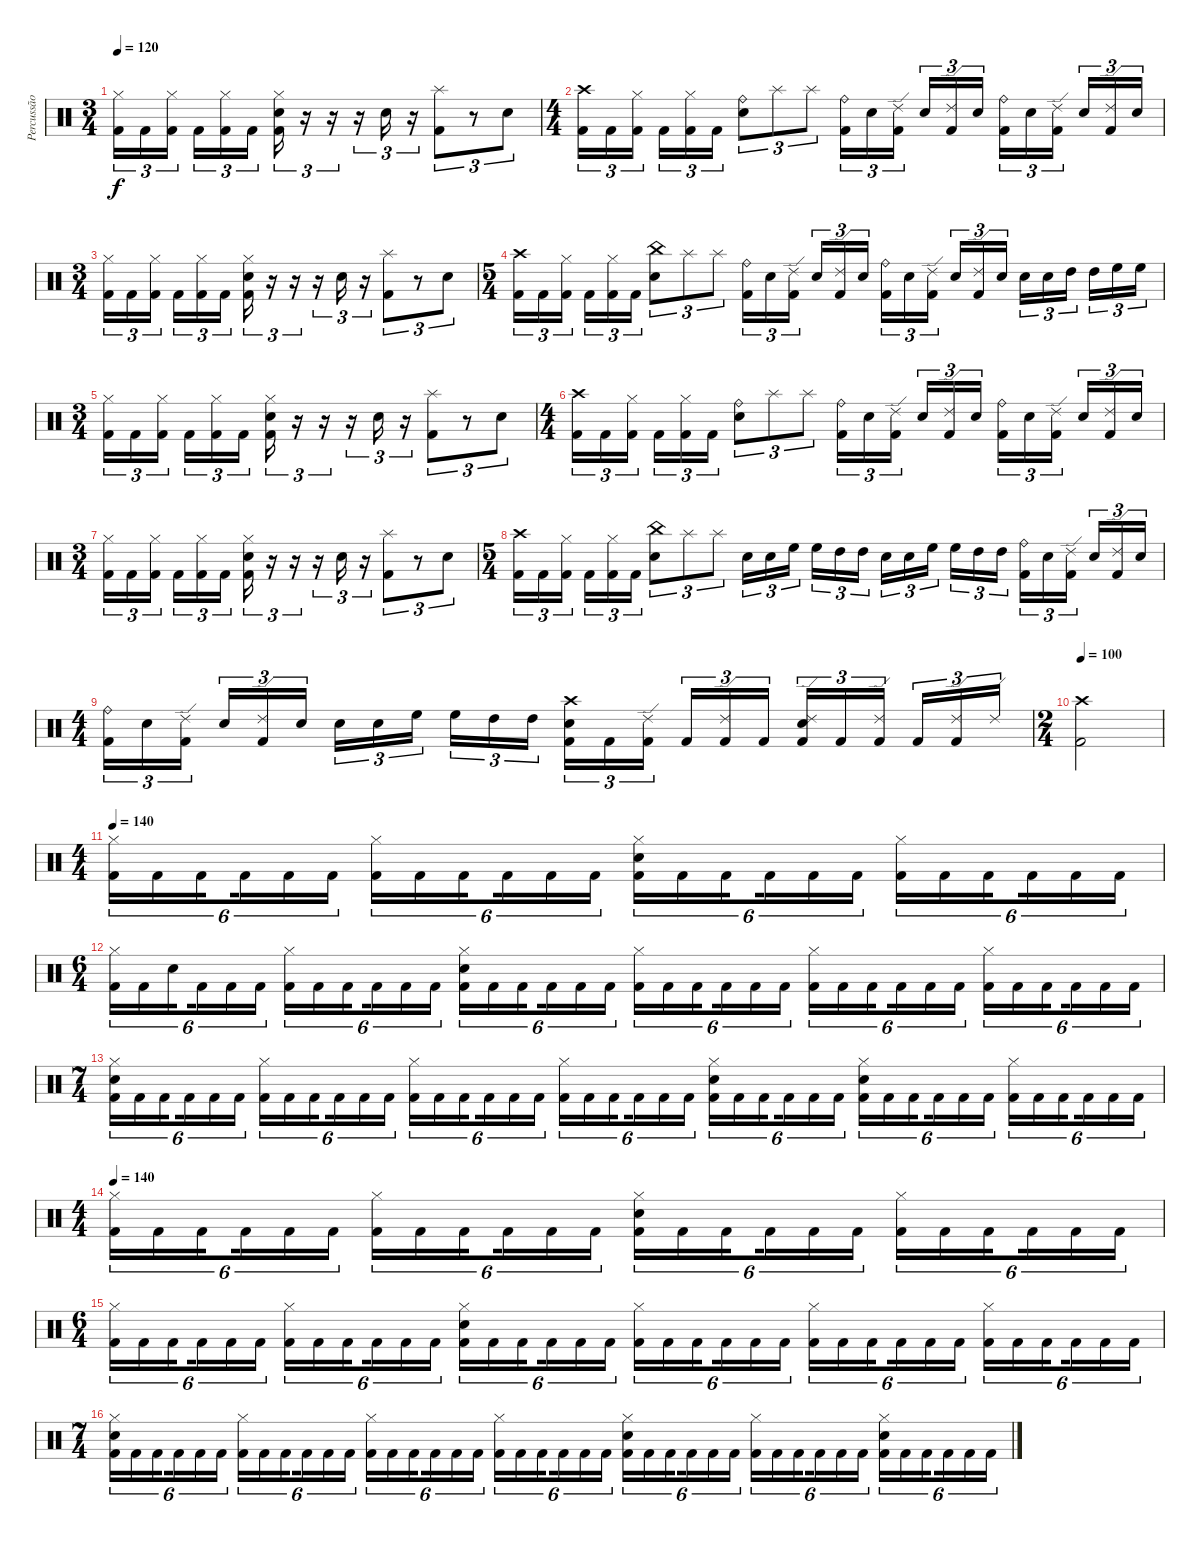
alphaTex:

\track ("Percussão" "Percussão") {instrument percussion}
\staff {score}
\articulation defaults
\ts (3 4)
\tempo 120
\clef neutral
\ks c
("Hi-Hat (closed)" "Kick (hit) 2").16{tu (3 2) dy f} "Kick (hit) 2".16{tu (3 2)} ("Hi-Hat (closed)" "Kick (hit) 2").16{tu (3 2) beam splitsecondary} "Kick (hit) 2".16{tu (3 2)} ("Hi-Hat (closed)" "Kick (hit) 2").16{tu (3 2)} "Kick (hit) 2".16{tu (3 2)} ("Hi-Hat (closed)" "Electric Snare (hit)" "Kick (hit) 2").16{tu (3 2)} r.16{tu (3 2)} r.16{tu (3 2)} r.16{tu (3 2)} "Electric Snare (hit)".16{tu (3 2)} r.16{tu (3 2)} ("Splash (hit)" "Kick (hit) 2").8{tu (3 2)} r.8{tu (3 2)} "Electric Snare (hit)".8{tu (3 2)} |
\ts (4 4)
("Crash high (hit)" "Kick (hit) 2").16{tu (3 2)} "Kick (hit) 2".16{tu (3 2)} ("Hi-Hat (closed)" "Kick (hit) 2").16{tu (3 2) beam splitsecondary} "Kick (hit) 2".16{tu (3 2)} ("Hi-Hat (closed)" "Kick (hit) 2").16{tu (3 2)} "Kick (hit) 2".16{tu (3 2)} ("Ride (bell)" "Electric Snare (hit)").8{tu (3 2)} "Splash (hit)".8{tu (3 2)} "Splash (hit)".8{tu (3 2)} ("Ride (bell)" "Kick (hit) 2").16{tu (3 2)} "Electric Snare (hit)".16{tu (3 2)} ("Ride (edge) 2" "Kick (hit) 2").16{tu (3 2) beam splitsecondary} "Electric Snare (hit)".16{tu (3 2)} ("Ride (edge) 2" "Kick (hit) 2").16{tu (3 2)} "Electric Snare (hit)".16{tu (3 2)} ("Ride (bell)" "Kick (hit) 2").16{tu (3 2)} "Electric Snare (hit)".16{tu (3 2)} ("Ride (edge) 2" "Kick (hit) 2").16{tu (3 2) beam splitsecondary} "Electric Snare (hit)".16{tu (3 2)} ("Ride (edge) 2" "Kick (hit) 2").16{tu (3 2)} "Electric Snare (hit)".16{tu (3 2)} |
\ts (3 4)
("Hi-Hat (closed)" "Kick (hit) 2").16{tu (3 2)} "Kick (hit) 2".16{tu (3 2)} ("Hi-Hat (closed)" "Kick (hit) 2").16{tu (3 2) beam splitsecondary} "Kick (hit) 2".16{tu (3 2)} ("Hi-Hat (closed)" "Kick (hit) 2").16{tu (3 2)} "Kick (hit) 2".16{tu (3 2)} ("Hi-Hat (closed)" "Electric Snare (hit)" "Kick (hit) 2").16{tu (3 2)} r.16{tu (3 2)} r.16{tu (3 2)} r.16{tu (3 2)} "Electric Snare (hit)".16{tu (3 2)} r.16{tu (3 2)} ("Splash (hit)" "Kick (hit) 2").8{tu (3 2)} r.8{tu (3 2)} "Electric Snare (hit)".8{tu (3 2)} |
\ts (5 4)
("Crash high (hit)" "Kick (hit) 2").16{tu (3 2)} "Kick (hit) 2".16{tu (3 2)} ("Hi-Hat (closed)" "Kick (hit) 2").16{tu (3 2) beam splitsecondary} "Kick (hit) 2".16{tu (3 2)} ("Hi-Hat (closed)" "Kick (hit) 2").16{tu (3 2)} "Kick (hit) 2".16{tu (3 2)} ("China (hit)" "Electric Snare (hit)").8{tu (3 2)} "Splash (hit)".8{tu (3 2)} "Splash (hit)".8{tu (3 2)} ("Ride (bell)" "Kick (hit) 2").16{tu (3 2)} "Electric Snare (hit)".16{tu (3 2)} ("Ride (edge) 2" "Kick (hit) 2").16{tu (3 2) beam splitsecondary} "Electric Snare (hit)".16{tu (3 2)} ("Ride (edge) 2" "Kick (hit) 2").16{tu (3 2)} "Electric Snare (hit)".16{tu (3 2)} ("Ride (bell)" "Kick (hit) 2").16{tu (3 2)} "Electric Snare (hit)".16{tu (3 2)} ("Ride (edge) 2" "Kick (hit) 2").16{tu (3 2) beam splitsecondary} "Electric Snare (hit)".16{tu (3 2)} ("Ride (edge) 2" "Kick (hit) 2").16{tu (3 2)} "Electric Snare (hit)".16{tu (3 2)} "Electric Snare (hit)".16{tu (3 2)} "Electric Snare (hit)".16{tu (3 2)} "High Tom (hit)".16{tu (3 2) beam splitsecondary} "High Tom (hit)".16{tu (3 2)} "High Floor Tom (hit)".16{tu (3 2)} "High Floor Tom (hit)".16{tu (3 2)} |
\ts (3 4)
("Hi-Hat (closed)" "Kick (hit) 2").16{tu (3 2)} "Kick (hit) 2".16{tu (3 2)} ("Hi-Hat (closed)" "Kick (hit) 2").16{tu (3 2) beam splitsecondary} "Kick (hit) 2".16{tu (3 2)} ("Hi-Hat (closed)" "Kick (hit) 2").16{tu (3 2)} "Kick (hit) 2".16{tu (3 2)} ("Hi-Hat (closed)" "Electric Snare (hit)" "Kick (hit) 2").16{tu (3 2)} r.16{tu (3 2)} r.16{tu (3 2)} r.16{tu (3 2)} "Electric Snare (hit)".16{tu (3 2)} r.16{tu (3 2)} ("Splash (hit)" "Kick (hit) 2").8{tu (3 2)} r.8{tu (3 2)} "Electric Snare (hit)".8{tu (3 2)} |
\ts (4 4)
("Crash high (hit)" "Kick (hit) 2").16{tu (3 2)} "Kick (hit) 2".16{tu (3 2)} ("Hi-Hat (closed)" "Kick (hit) 2").16{tu (3 2) beam splitsecondary} "Kick (hit) 2".16{tu (3 2)} ("Hi-Hat (closed)" "Kick (hit) 2").16{tu (3 2)} "Kick (hit) 2".16{tu (3 2)} ("Ride (bell)" "Electric Snare (hit)").8{tu (3 2)} "Splash (hit)".8{tu (3 2)} "Splash (hit)".8{tu (3 2)} ("Ride (bell)" "Kick (hit) 2").16{tu (3 2)} "Electric Snare (hit)".16{tu (3 2)} ("Ride (edge) 2" "Kick (hit) 2").16{tu (3 2) beam splitsecondary} "Electric Snare (hit)".16{tu (3 2)} ("Ride (edge) 2" "Kick (hit) 2").16{tu (3 2)} "Electric Snare (hit)".16{tu (3 2)} ("Ride (bell)" "Kick (hit) 2").16{tu (3 2)} "Electric Snare (hit)".16{tu (3 2)} ("Ride (edge) 2" "Kick (hit) 2").16{tu (3 2) beam splitsecondary} "Electric Snare (hit)".16{tu (3 2)} ("Ride (edge) 2" "Kick (hit) 2").16{tu (3 2)} "Electric Snare (hit)".16{tu (3 2)} |
\ts (3 4)
("Hi-Hat (closed)" "Kick (hit) 2").16{tu (3 2)} "Kick (hit) 2".16{tu (3 2)} ("Hi-Hat (closed)" "Kick (hit) 2").16{tu (3 2) beam splitsecondary} "Kick (hit) 2".16{tu (3 2)} ("Hi-Hat (closed)" "Kick (hit) 2").16{tu (3 2)} "Kick (hit) 2".16{tu (3 2)} ("Hi-Hat (closed)" "Electric Snare (hit)" "Kick (hit) 2").16{tu (3 2)} r.16{tu (3 2)} r.16{tu (3 2)} r.16{tu (3 2)} "Electric Snare (hit)".16{tu (3 2)} r.16{tu (3 2)} ("Splash (hit)" "Kick (hit) 2").8{tu (3 2)} r.8{tu (3 2)} "Electric Snare (hit)".8{tu (3 2)} |
\ts (5 4)
("Crash high (hit)" "Kick (hit) 2").16{tu (3 2)} "Kick (hit) 2".16{tu (3 2)} ("Hi-Hat (closed)" "Kick (hit) 2").16{tu (3 2) beam splitsecondary} "Kick (hit) 2".16{tu (3 2)} ("Hi-Hat (closed)" "Kick (hit) 2").16{tu (3 2)} "Kick (hit) 2".16{tu (3 2)} ("China (hit)" "Electric Snare (hit)").8{tu (3 2)} "Splash (hit)".8{tu (3 2)} "Splash (hit)".8{tu (3 2)} "Electric Snare (hit)".16{tu (3 2)} "Electric Snare (hit)".16{tu (3 2)} "High Floor Tom (hit)".16{tu (3 2) beam splitsecondary} "High Floor Tom (hit)".16{tu (3 2)} "High Tom (hit)".16{tu (3 2)} "High Tom (hit)".16{tu (3 2)} "Electric Snare (hit)".16{tu (3 2)} "Electric Snare (hit)".16{tu (3 2)} "High Floor Tom (hit)".16{tu (3 2) beam splitsecondary} "High Floor Tom (hit)".16{tu (3 2)} "High Tom (hit)".16{tu (3 2)} "High Tom (hit)".16{tu (3 2)} ("Ride (bell)" "Kick (hit) 2").16{tu (3 2)} "Electric Snare (hit)".16{tu (3 2)} ("Ride (edge) 2" "Kick (hit) 2").16{tu (3 2) beam splitsecondary} "Electric Snare (hit)".16{tu (3 2)} ("Ride (edge) 2" "Kick (hit) 2").16{tu (3 2)} "Electric Snare (hit)".16{tu (3 2)} |
\ts (4 4)
("Ride (bell)" "Kick (hit) 2").16{tu (3 2)} "Electric Snare (hit)".16{tu (3 2)} ("Ride (edge) 2" "Kick (hit) 2").16{tu (3 2) beam splitsecondary} "Electric Snare (hit)".16{tu (3 2)} ("Ride (edge) 2" "Kick (hit) 2").16{tu (3 2)} "Electric Snare (hit)".16{tu (3 2)} "Electric Snare (hit)".16{tu (3 2)} "Electric Snare (hit)".16{tu (3 2)} "High Floor Tom (hit)".16{tu (3 2) beam splitsecondary} "High Floor Tom (hit)".16{tu (3 2)} "High Tom (hit)".16{tu (3 2)} "High Tom (hit)".16{tu (3 2)} ("Crash high (hit)" "Electric Snare (hit)" "Kick (hit) 2").16{tu (3 2)} "Kick (hit) 2".16{tu (3 2)} ("Ride (edge) 2" "Kick (hit) 2").16{tu (3 2) beam splitsecondary} "Kick (hit) 2".16{tu (3 2)} ("Ride (edge) 2" "Kick (hit) 2").16{tu (3 2)} "Kick (hit) 2".16{tu (3 2)} ("Ride (edge) 2" "Electric Snare (hit)" "Kick (hit) 2").16{tu (3 2)} "Kick (hit) 2".16{tu (3 2)} ("Ride (edge) 2" "Kick (hit) 2").16{tu (3 2) beam splitsecondary} "Kick (hit) 2".16{tu (3 2)} ("Ride (edge) 2" "Kick (hit) 2").16{tu (3 2)} "Ride (edge) 2".16{tu (3 2)} |
\ts (2 4)
\tempo 100
("Crash high (hit)" "Kick (hit) 2").2 |
\ts (4 4)
\tempo 140
("Hi-Hat (closed)" "Kick (hit) 2").16{tu (6 4)} "Kick (hit) 2".16{tu (6 4)} "Kick (hit) 2".16{tu (6 4) beam splitsecondary} "Kick (hit) 2".16{tu (6 4)} "Kick (hit) 2".16{tu (6 4)} "Kick (hit) 2".16{tu (6 4)} ("Hi-Hat (closed)" "Kick (hit) 2").16{tu (6 4)} "Kick (hit) 2".16{tu (6 4)} "Kick (hit) 2".16{tu (6 4) beam splitsecondary} "Kick (hit) 2".16{tu (6 4)} "Kick (hit) 2".16{tu (6 4)} "Kick (hit) 2".16{tu (6 4)} ("Hi-Hat (closed)" "Electric Snare (hit)" "Kick (hit) 2").16{tu (6 4)} "Kick (hit) 2".16{tu (6 4)} "Kick (hit) 2".16{tu (6 4) beam splitsecondary} "Kick (hit) 2".16{tu (6 4)} "Kick (hit) 2".16{tu (6 4)} "Kick (hit) 2".16{tu (6 4)} ("Hi-Hat (closed)" "Kick (hit) 2").16{tu (6 4)} "Kick (hit) 2".16{tu (6 4)} "Kick (hit) 2".16{tu (6 4) beam splitsecondary} "Kick (hit) 2".16{tu (6 4)} "Kick (hit) 2".16{tu (6 4)} "Kick (hit) 2".16{tu (6 4)} |
\ts (6 4)
("Hi-Hat (closed)" "Kick (hit) 2").16{tu (6 4)} "Kick (hit) 2".16{tu (6 4)} "Snare (hit)".16{tu (6 4) beam splitsecondary} "Kick (hit) 2".16{tu (6 4)} "Kick (hit) 2".16{tu (6 4)} "Kick (hit) 2".16{tu (6 4) beam splitsecondary} ("Hi-Hat (closed)" "Kick (hit) 2").16{tu (6 4)} "Kick (hit) 2".16{tu (6 4)} "Kick (hit) 2".16{tu (6 4) beam splitsecondary} "Kick (hit) 2".16{tu (6 4)} "Kick (hit) 2".16{tu (6 4)} "Kick (hit) 2".16{tu (6 4) beam splitsecondary} ("Hi-Hat (closed)" "Electric Snare (hit)" "Kick (hit) 2").16{tu (6 4)} "Kick (hit) 2".16{tu (6 4)} "Kick (hit) 2".16{tu (6 4) beam splitsecondary} "Kick (hit) 2".16{tu (6 4)} "Kick (hit) 2".16{tu (6 4)} "Kick (hit) 2".16{tu (6 4)} ("Hi-Hat (closed)" "Kick (hit) 2").16{tu (6 4)} "Kick (hit) 2".16{tu (6 4)} "Kick (hit) 2".16{tu (6 4) beam splitsecondary} "Kick (hit) 2".16{tu (6 4)} "Kick (hit) 2".16{tu (6 4)} "Kick (hit) 2".16{tu (6 4) beam splitsecondary} ("Hi-Hat (closed)" "Kick (hit) 2").16{tu (6 4)} "Kick (hit) 2".16{tu (6 4)} "Kick (hit) 2".16{tu (6 4) beam splitsecondary} "Kick (hit) 2".16{tu (6 4)} "Kick (hit) 2".16{tu (6 4)} "Kick (hit) 2".16{tu (6 4) beam splitsecondary} ("Hi-Hat (closed)" "Kick (hit) 2").16{tu (6 4)} "Kick (hit) 2".16{tu (6 4)} "Kick (hit) 2".16{tu (6 4) beam splitsecondary} "Kick (hit) 2".16{tu (6 4)} "Kick (hit) 2".16{tu (6 4)} "Kick (hit) 2".16{tu (6 4)} |
\ts (7 4)
("Hi-Hat (closed)" "Electric Snare (hit)" "Kick (hit) 2").16{tu (6 4)} "Kick (hit) 2".16{tu (6 4)} "Kick (hit) 2".16{tu (6 4) beam splitsecondary} "Kick (hit) 2".16{tu (6 4)} "Kick (hit) 2".16{tu (6 4)} "Kick (hit) 2".16{tu (6 4)} ("Hi-Hat (closed)" "Kick (hit) 2").16{tu (6 4)} "Kick (hit) 2".16{tu (6 4)} "Kick (hit) 2".16{tu (6 4) beam splitsecondary} "Kick (hit) 2".16{tu (6 4)} "Kick (hit) 2".16{tu (6 4)} "Kick (hit) 2".16{tu (6 4)} ("Hi-Hat (closed)" "Kick (hit) 2").16{tu (6 4)} "Kick (hit) 2".16{tu (6 4)} "Kick (hit) 2".16{tu (6 4) beam splitsecondary} "Kick (hit) 2".16{tu (6 4)} "Kick (hit) 2".16{tu (6 4)} "Kick (hit) 2".16{tu (6 4)} ("Hi-Hat (closed)" "Kick (hit) 2").16{tu (6 4)} "Kick (hit) 2".16{tu (6 4)} "Kick (hit) 2".16{tu (6 4) beam splitsecondary} "Kick (hit) 2".16{tu (6 4)} "Kick (hit) 2".16{tu (6 4)} "Kick (hit) 2".16{tu (6 4)} ("Hi-Hat (closed)" "Electric Snare (hit)" "Kick (hit) 2").16{tu (6 4)} "Kick (hit) 2".16{tu (6 4)} "Kick (hit) 2".16{tu (6 4) beam splitsecondary} "Kick (hit) 2".16{tu (6 4)} "Kick (hit) 2".16{tu (6 4)} "Kick (hit) 2".16{tu (6 4)} ("Hi-Hat (closed)" "Electric Snare (hit)" "Kick (hit) 2").16{tu (6 4)} "Kick (hit) 2".16{tu (6 4)} "Kick (hit) 2".16{tu (6 4) beam splitsecondary} "Kick (hit) 2".16{tu (6 4)} "Kick (hit) 2".16{tu (6 4)} "Kick (hit) 2".16{tu (6 4)} ("Hi-Hat (closed)" "Kick (hit) 2").16{tu (6 4)} "Kick (hit) 2".16{tu (6 4)} "Kick (hit) 2".16{tu (6 4) beam splitsecondary} "Kick (hit) 2".16{tu (6 4)} "Kick (hit) 2".16{tu (6 4)} "Kick (hit) 2".16{tu (6 4)} |
\ts (4 4)
\tempo 140
("Hi-Hat (closed)" "Kick (hit) 2").16{tu (6 4)} "Kick (hit) 2".16{tu (6 4)} "Kick (hit) 2".16{tu (6 4) beam splitsecondary} "Kick (hit) 2".16{tu (6 4)} "Kick (hit) 2".16{tu (6 4)} "Kick (hit) 2".16{tu (6 4)} ("Hi-Hat (closed)" "Kick (hit) 2").16{tu (6 4)} "Kick (hit) 2".16{tu (6 4)} "Kick (hit) 2".16{tu (6 4) beam splitsecondary} "Kick (hit) 2".16{tu (6 4)} "Kick (hit) 2".16{tu (6 4)} "Kick (hit) 2".16{tu (6 4)} ("Hi-Hat (closed)" "Electric Snare (hit)" "Kick (hit) 2").16{tu (6 4)} "Kick (hit) 2".16{tu (6 4)} "Kick (hit) 2".16{tu (6 4) beam splitsecondary} "Kick (hit) 2".16{tu (6 4)} "Kick (hit) 2".16{tu (6 4)} "Kick (hit) 2".16{tu (6 4)} ("Hi-Hat (closed)" "Kick (hit) 2").16{tu (6 4)} "Kick (hit) 2".16{tu (6 4)} "Kick (hit) 2".16{tu (6 4) beam splitsecondary} "Kick (hit) 2".16{tu (6 4)} "Kick (hit) 2".16{tu (6 4)} "Kick (hit) 2".16{tu (6 4)} |
\ts (6 4)
("Hi-Hat (closed)" "Kick (hit) 2").16{tu (6 4)} "Kick (hit) 2".16{tu (6 4)} "Kick (hit) 2".16{tu (6 4) beam splitsecondary} "Kick (hit) 2".16{tu (6 4)} "Kick (hit) 2".16{tu (6 4)} "Kick (hit) 2".16{tu (6 4) beam splitsecondary} ("Hi-Hat (closed)" "Kick (hit) 2").16{tu (6 4)} "Kick (hit) 2".16{tu (6 4)} "Kick (hit) 2".16{tu (6 4) beam splitsecondary} "Kick (hit) 2".16{tu (6 4)} "Kick (hit) 2".16{tu (6 4)} "Kick (hit) 2".16{tu (6 4) beam splitsecondary} ("Hi-Hat (closed)" "Electric Snare (hit)" "Kick (hit) 2").16{tu (6 4)} "Kick (hit) 2".16{tu (6 4)} "Kick (hit) 2".16{tu (6 4) beam splitsecondary} "Kick (hit) 2".16{tu (6 4)} "Kick (hit) 2".16{tu (6 4)} "Kick (hit) 2".16{tu (6 4)} ("Hi-Hat (closed)" "Kick (hit) 2").16{tu (6 4)} "Kick (hit) 2".16{tu (6 4)} "Kick (hit) 2".16{tu (6 4) beam splitsecondary} "Kick (hit) 2".16{tu (6 4)} "Kick (hit) 2".16{tu (6 4)} "Kick (hit) 2".16{tu (6 4) beam splitsecondary} ("Hi-Hat (closed)" "Kick (hit) 2").16{tu (6 4)} "Kick (hit) 2".16{tu (6 4)} "Kick (hit) 2".16{tu (6 4) beam splitsecondary} "Kick (hit) 2".16{tu (6 4)} "Kick (hit) 2".16{tu (6 4)} "Kick (hit) 2".16{tu (6 4) beam splitsecondary} ("Hi-Hat (closed)" "Kick (hit) 2").16{tu (6 4)} "Kick (hit) 2".16{tu (6 4)} "Kick (hit) 2".16{tu (6 4) beam splitsecondary} "Kick (hit) 2".16{tu (6 4)} "Kick (hit) 2".16{tu (6 4)} "Kick (hit) 2".16{tu (6 4)} |
\ts (7 4)
("Hi-Hat (closed)" "Electric Snare (hit)" "Kick (hit) 2").16{tu (6 4)} "Kick (hit) 2".16{tu (6 4)} "Kick (hit) 2".16{tu (6 4) beam splitsecondary} "Kick (hit) 2".16{tu (6 4)} "Kick (hit) 2".16{tu (6 4)} "Kick (hit) 2".16{tu (6 4)} ("Hi-Hat (closed)" "Kick (hit) 2").16{tu (6 4)} "Kick (hit) 2".16{tu (6 4)} "Kick (hit) 2".16{tu (6 4) beam splitsecondary} "Kick (hit) 2".16{tu (6 4)} "Kick (hit) 2".16{tu (6 4)} "Kick (hit) 2".16{tu (6 4)} ("Hi-Hat (closed)" "Kick (hit) 2").16{tu (6 4)} "Kick (hit) 2".16{tu (6 4)} "Kick (hit) 2".16{tu (6 4) beam splitsecondary} "Kick (hit) 2".16{tu (6 4)} "Kick (hit) 2".16{tu (6 4)} "Kick (hit) 2".16{tu (6 4)} ("Hi-Hat (closed)" "Kick (hit) 2").16{tu (6 4)} "Kick (hit) 2".16{tu (6 4)} "Kick (hit) 2".16{tu (6 4) beam splitsecondary} "Kick (hit) 2".16{tu (6 4)} "Kick (hit) 2".16{tu (6 4)} "Kick (hit) 2".16{tu (6 4)} ("Hi-Hat (closed)" "Electric Snare (hit)" "Kick (hit) 2").16{tu (6 4)} "Kick (hit) 2".16{tu (6 4)} "Kick (hit) 2".16{tu (6 4) beam splitsecondary} "Kick (hit) 2".16{tu (6 4)} "Kick (hit) 2".16{tu (6 4)} "Kick (hit) 2".16{tu (6 4)} ("Hi-Hat (closed)" "Kick (hit) 2").16{tu (6 4)} "Kick (hit) 2".16{tu (6 4)} "Kick (hit) 2".16{tu (6 4) beam splitsecondary} "Kick (hit) 2".16{tu (6 4)} "Kick (hit) 2".16{tu (6 4)} "Kick (hit) 2".16{tu (6 4)} ("Hi-Hat (closed)" "Electric Snare (hit)" "Kick (hit) 2").16{tu (6 4)} "Kick (hit) 2".16{tu (6 4)} "Kick (hit) 2".16{tu (6 4) beam splitsecondary} "Kick (hit) 2".16{tu (6 4)} "Kick (hit) 2".16{tu (6 4)} "Kick (hit) 2".16{tu (6 4)}
